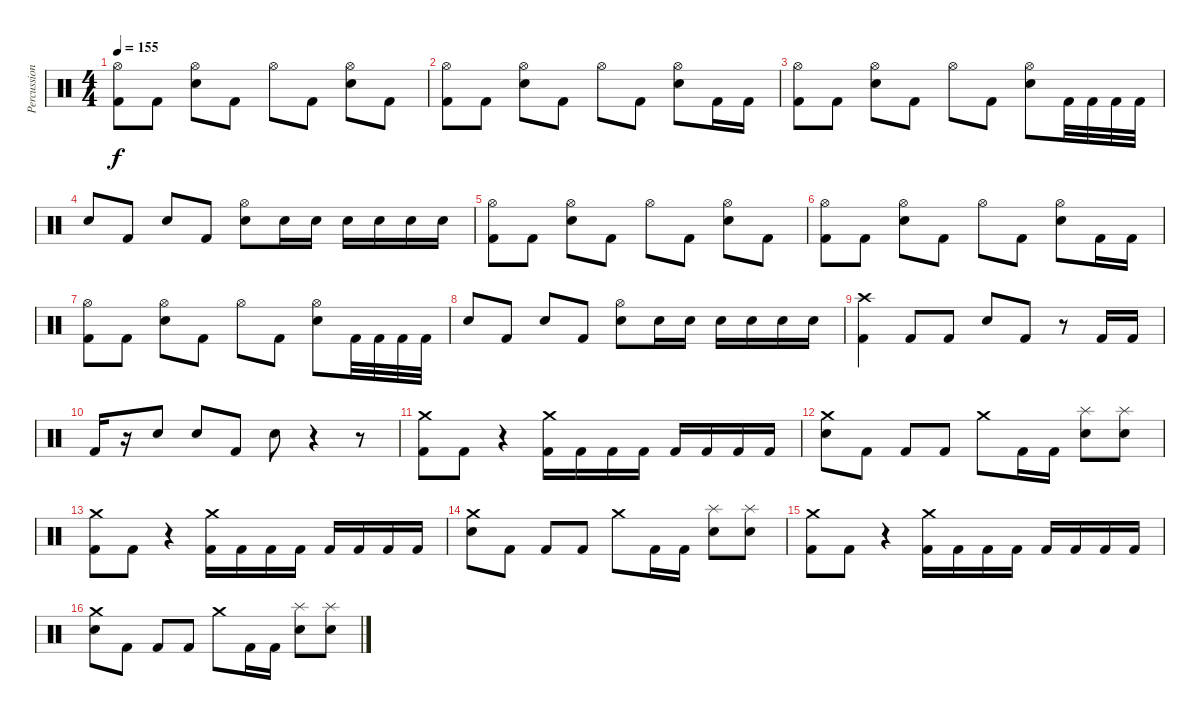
\track ("Percussion" "Percussion") {instrument percussion}
\staff {score}
\articulation defaults
\ts (4 4)
\tempo 155
\clef neutral
\ks c
("Hi-Hat (open)" "Kick (hit) 2").8{dy f} "Kick (hit) 2".8 ("Hi-Hat (open)" "Snare (hit) 2").8 "Kick (hit) 2".8 "Hi-Hat (open)".8 "Kick (hit) 2".8 ("Hi-Hat (open)" "Snare (hit) 2").8 "Kick (hit) 2".8 |
("Hi-Hat (open)" "Kick (hit) 2").8 "Kick (hit) 2".8 ("Hi-Hat (open)" "Snare (hit) 2").8 "Kick (hit) 2".8 "Hi-Hat (open)".8 "Kick (hit) 2".8 ("Hi-Hat (open)" "Snare (hit) 2").8 "Kick (hit) 2".16 "Kick (hit) 2".16 |
("Hi-Hat (open)" "Kick (hit) 2").8 "Kick (hit) 2".8 ("Hi-Hat (open)" "Snare (hit) 2").8 "Kick (hit) 2".8 "Hi-Hat (open)".8 "Kick (hit) 2".8 ("Hi-Hat (open)" "Snare (hit) 2").8 "Kick (hit) 2".32 "Kick (hit) 2".32 "Kick (hit) 2".32 "Kick (hit) 2".32 |
"Snare (hit) 2".8 "Kick (hit) 2".8 "Snare (hit) 2".8 "Kick (hit) 2".8 ("Hi-Hat (open)" "Snare (hit) 2").8 "Snare (hit) 2".16 "Snare (hit) 2".16 "Snare (hit) 2".16 "Snare (hit) 2".16 "Snare (hit) 2".16 "Snare (hit) 2".16 |
("Hi-Hat (open)" "Kick (hit) 2").8 "Kick (hit) 2".8 ("Hi-Hat (open)" "Snare (hit) 2").8 "Kick (hit) 2".8 "Hi-Hat (open)".8 "Kick (hit) 2".8 ("Hi-Hat (open)" "Snare (hit) 2").8 "Kick (hit) 2".8 |
("Hi-Hat (open)" "Kick (hit) 2").8 "Kick (hit) 2".8 ("Hi-Hat (open)" "Snare (hit) 2").8 "Kick (hit) 2".8 "Hi-Hat (open)".8 "Kick (hit) 2".8 ("Hi-Hat (open)" "Snare (hit) 2").8 "Kick (hit) 2".16 "Kick (hit) 2".16 |
("Hi-Hat (open)" "Kick (hit) 2").8 "Kick (hit) 2".8 ("Hi-Hat (open)" "Snare (hit) 2").8 "Kick (hit) 2".8 "Hi-Hat (open)".8 "Kick (hit) 2".8 ("Hi-Hat (open)" "Snare (hit) 2").8 "Kick (hit) 2".32 "Kick (hit) 2".32 "Kick (hit) 2".32 "Kick (hit) 2".32 |
"Snare (hit) 2".8 "Kick (hit) 2".8 "Snare (hit) 2".8 "Kick (hit) 2".8 ("Hi-Hat (open)" "Snare (hit) 2").8 "Snare (hit) 2".16 "Snare (hit) 2".16 "Snare (hit) 2".16 "Snare (hit) 2".16 "Snare (hit) 2".16 "Snare (hit) 2".16 |
("Crash high (hit)" "Kick (hit) 2").4 "Kick (hit) 2".8 "Kick (hit) 2".8 "Snare (hit) 2".8 "Kick (hit) 2".8 r.8 "Kick (hit) 2".16 "Kick (hit) 2".16 |
"Kick (hit) 2".16 r.16 "Snare (hit) 2".8 "Snare (hit) 2".8 "Kick (hit) 2".8 "Snare (hit) 2".8 r.4 r.8 |
("Crash medium (hit)" "Kick (hit) 2").8 "Kick (hit) 2".8 r.4 ("Crash medium (hit)" "Kick (hit) 2").16 "Kick (hit) 2".16 "Kick (hit) 2".16 "Kick (hit) 2".16 "Kick (hit) 2".16 "Kick (hit) 2".16 "Kick (hit) 2".16 "Kick (hit) 2".16 |
("Crash medium (hit)" "Snare (hit) 2").8 "Kick (hit) 2".8 "Kick (hit) 2".8 "Kick (hit) 2".8 "Crash medium (hit)".8 "Kick (hit) 2".16 "Kick (hit) 2".16 ("Splash (hit)" "Snare (hit) 2").8 ("Splash (hit)" "Snare (hit) 2").8 |
("Crash medium (hit)" "Kick (hit) 2").8 "Kick (hit) 2".8 r.4 ("Crash medium (hit)" "Kick (hit) 2").16 "Kick (hit) 2".16 "Kick (hit) 2".16 "Kick (hit) 2".16 "Kick (hit) 2".16 "Kick (hit) 2".16 "Kick (hit) 2".16 "Kick (hit) 2".16 |
("Crash medium (hit)" "Snare (hit) 2").8 "Kick (hit) 2".8 "Kick (hit) 2".8 "Kick (hit) 2".8 "Crash medium (hit)".8 "Kick (hit) 2".16 "Kick (hit) 2".16 ("Splash (hit)" "Snare (hit) 2").8 ("Splash (hit)" "Snare (hit) 2").8 |
("Crash medium (hit)" "Kick (hit) 2").8 "Kick (hit) 2".8 r.4 ("Crash medium (hit)" "Kick (hit) 2").16 "Kick (hit) 2".16 "Kick (hit) 2".16 "Kick (hit) 2".16 "Kick (hit) 2".16 "Kick (hit) 2".16 "Kick (hit) 2".16 "Kick (hit) 2".16 |
("Crash medium (hit)" "Snare (hit) 2").8 "Kick (hit) 2".8 "Kick (hit) 2".8 "Kick (hit) 2".8 "Crash medium (hit)".8 "Kick (hit) 2".16 "Kick (hit) 2".16 ("Splash (hit)" "Snare (hit) 2").8 ("Splash (hit)" "Snare (hit) 2").8
